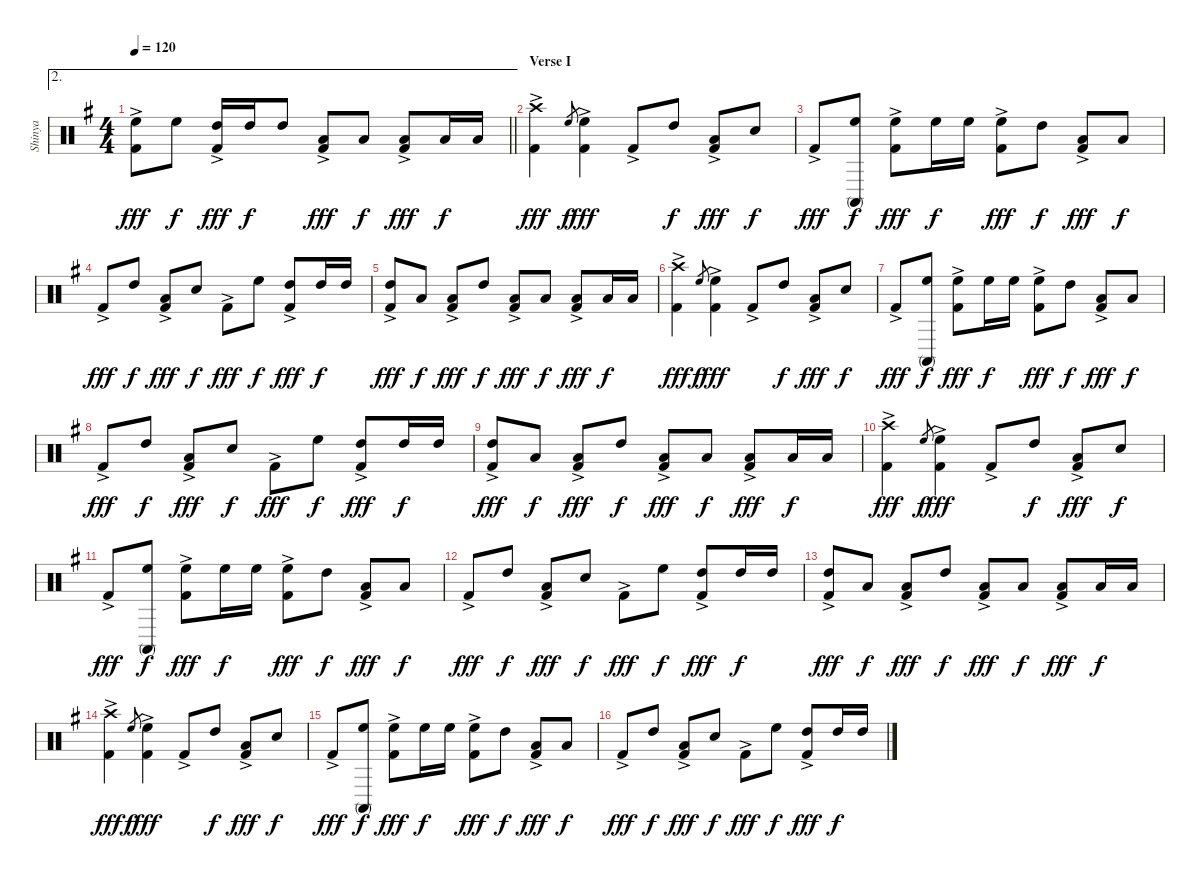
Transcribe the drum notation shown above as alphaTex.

\track ("Shinya" "Shinya") {instrument percussion}
\staff {score}
\articulation defaults
\ae 2
\ts (4 4)
\tempo 120
\clef neutral
\barLineRight lightlight
\ks g
("High Floor Tom (hit)" "Kick (hit) 2"{ac}).8{dy fff} "High Floor Tom (hit)".8{dy f} ("High Tom (hit)" "Kick (hit) 2"{ac}).16{dy fff} "High Tom (hit)".16{dy f} "High Tom (hit)".8 ("Low Tom (hit)" "Kick (hit) 2"{ac}).8{dy fff} "Low Floor Tom (hit)".8{dy f} ("Low Floor Tom (hit)" "Kick (hit) 2"{ac}).8{dy fff} "Low Floor Tom (hit)".16{dy f} "Low Floor Tom (hit)".16 |
\section ("" "Verse I")
("Crash high (hit)"{ac} "Kick (hit) 2").4{dy fff} "High Floor Tom (hit)".8{gr dy f} ("High Floor Tom (hit)" "Kick (hit) 2"{ac}).4{dy fff} "Kick (hit) 2"{ac}.8 "High Tom (hit)".8{dy f} ("Low Tom (hit)" "Kick (hit) 2"{ac}).8{dy fff} "Snare (hit) 2".8{dy f} |
"Kick (hit) 2"{ac}.8{dy fff} ("Conga high (mute)" "High Floor Tom (hit)").8{dy f} ("High Floor Tom (hit)" "Kick (hit) 2"{ac}).8{dy fff} "High Floor Tom (hit)".16{dy f} "High Floor Tom (hit)".16 ("High Floor Tom (hit)" "Kick (hit) 2"{ac}).8{dy fff} "High Tom (hit)".8{dy f} ("Low Tom (hit)" "Kick (hit) 2"{ac}).8{dy fff} "Low Floor Tom (hit)".8{dy f} |
"Kick (hit) 2"{ac}.8{dy fff} "High Tom (hit)".8{dy f} ("Low Tom (hit)" "Kick (hit) 2"{ac}).8{dy fff} "Snare (hit) 2".8{dy f} "Kick (hit) 2"{ac}.8{dy fff} "High Floor Tom (hit)".8{dy f} ("High Tom (hit)" "Kick (hit) 2"{ac}).8{dy fff} "High Tom (hit)".16{dy f} "High Tom (hit)".16 |
("High Tom (hit)" "Kick (hit) 2"{ac}).8{dy fff} "Low Tom (hit)".8{dy f} ("Low Floor Tom (hit)" "Kick (hit) 2"{ac}).8{dy fff} "High Tom (hit)".8{dy f} ("Low Tom (hit)" "Kick (hit) 2"{ac}).8{dy fff} "Low Floor Tom (hit)".8{dy f} ("Low Floor Tom (hit)" "Kick (hit) 2"{ac}).8{dy fff} "Low Floor Tom (hit)".16{dy f} "Low Floor Tom (hit)".16 |
("Crash high (hit)"{ac} "Kick (hit) 2").4{dy fff} "High Floor Tom (hit)".8{gr dy f} ("High Floor Tom (hit)" "Kick (hit) 2"{ac}).4{dy fff} "Kick (hit) 2"{ac}.8 "High Tom (hit)".8{dy f} ("Low Tom (hit)" "Kick (hit) 2"{ac}).8{dy fff} "Snare (hit) 2".8{dy f} |
"Kick (hit) 2"{ac}.8{dy fff} ("Conga high (mute)" "High Floor Tom (hit)").8{dy f} ("High Floor Tom (hit)" "Kick (hit) 2"{ac}).8{dy fff} "High Floor Tom (hit)".16{dy f} "High Floor Tom (hit)".16 ("High Floor Tom (hit)" "Kick (hit) 2"{ac}).8{dy fff} "High Tom (hit)".8{dy f} ("Low Tom (hit)" "Kick (hit) 2"{ac}).8{dy fff} "Low Floor Tom (hit)".8{dy f} |
"Kick (hit) 2"{ac}.8{dy fff} "High Tom (hit)".8{dy f} ("Low Tom (hit)" "Kick (hit) 2"{ac}).8{dy fff} "Snare (hit) 2".8{dy f} "Kick (hit) 2"{ac}.8{dy fff} "High Floor Tom (hit)".8{dy f} ("High Tom (hit)" "Kick (hit) 2"{ac}).8{dy fff} "High Tom (hit)".16{dy f} "High Tom (hit)".16 |
("High Tom (hit)" "Kick (hit) 2"{ac}).8{dy fff} "Low Tom (hit)".8{dy f} ("Low Floor Tom (hit)" "Kick (hit) 2"{ac}).8{dy fff} "High Tom (hit)".8{dy f} ("Low Tom (hit)" "Kick (hit) 2"{ac}).8{dy fff} "Low Floor Tom (hit)".8{dy f} ("Low Floor Tom (hit)" "Kick (hit) 2"{ac}).8{dy fff} "Low Floor Tom (hit)".16{dy f} "Low Floor Tom (hit)".16 |
("Crash high (hit)"{ac} "Kick (hit) 2").4{dy fff} "High Floor Tom (hit)".8{gr dy f} ("High Floor Tom (hit)" "Kick (hit) 2"{ac}).4{dy fff} "Kick (hit) 2"{ac}.8 "High Tom (hit)".8{dy f} ("Low Tom (hit)" "Kick (hit) 2"{ac}).8{dy fff} "Snare (hit) 2".8{dy f} |
"Kick (hit) 2"{ac}.8{dy fff} ("Conga high (mute)" "High Floor Tom (hit)").8{dy f} ("High Floor Tom (hit)" "Kick (hit) 2"{ac}).8{dy fff} "High Floor Tom (hit)".16{dy f} "High Floor Tom (hit)".16 ("High Floor Tom (hit)" "Kick (hit) 2"{ac}).8{dy fff} "High Tom (hit)".8{dy f} ("Low Tom (hit)" "Kick (hit) 2"{ac}).8{dy fff} "Low Floor Tom (hit)".8{dy f} |
"Kick (hit) 2"{ac}.8{dy fff} "High Tom (hit)".8{dy f} ("Low Tom (hit)" "Kick (hit) 2"{ac}).8{dy fff} "Snare (hit) 2".8{dy f} "Kick (hit) 2"{ac}.8{dy fff} "High Floor Tom (hit)".8{dy f} ("High Tom (hit)" "Kick (hit) 2"{ac}).8{dy fff} "High Tom (hit)".16{dy f} "High Tom (hit)".16 |
("High Tom (hit)" "Kick (hit) 2"{ac}).8{dy fff} "Low Tom (hit)".8{dy f} ("Low Floor Tom (hit)" "Kick (hit) 2"{ac}).8{dy fff} "High Tom (hit)".8{dy f} ("Low Tom (hit)" "Kick (hit) 2"{ac}).8{dy fff} "Low Floor Tom (hit)".8{dy f} ("Low Floor Tom (hit)" "Kick (hit) 2"{ac}).8{dy fff} "Low Floor Tom (hit)".16{dy f} "Low Floor Tom (hit)".16 |
("Crash high (hit)"{ac} "Kick (hit) 2").4{dy fff} "High Floor Tom (hit)".8{gr dy f} ("High Floor Tom (hit)" "Kick (hit) 2"{ac}).4{dy fff} "Kick (hit) 2"{ac}.8 "High Tom (hit)".8{dy f} ("Low Tom (hit)" "Kick (hit) 2"{ac}).8{dy fff} "Snare (hit) 2".8{dy f} |
"Kick (hit) 2"{ac}.8{dy fff} ("Conga high (mute)" "High Floor Tom (hit)").8{dy f} ("High Floor Tom (hit)" "Kick (hit) 2"{ac}).8{dy fff} "High Floor Tom (hit)".16{dy f} "High Floor Tom (hit)".16 ("High Floor Tom (hit)" "Kick (hit) 2"{ac}).8{dy fff} "High Tom (hit)".8{dy f} ("Low Tom (hit)" "Kick (hit) 2"{ac}).8{dy fff} "Low Floor Tom (hit)".8{dy f} |
"Kick (hit) 2"{ac}.8{dy fff} "High Tom (hit)".8{dy f} ("Low Tom (hit)" "Kick (hit) 2"{ac}).8{dy fff} "Snare (hit) 2".8{dy f} "Kick (hit) 2"{ac}.8{dy fff} "High Floor Tom (hit)".8{dy f} ("High Tom (hit)" "Kick (hit) 2"{ac}).8{dy fff} "High Tom (hit)".16{dy f} "High Tom (hit)".16
